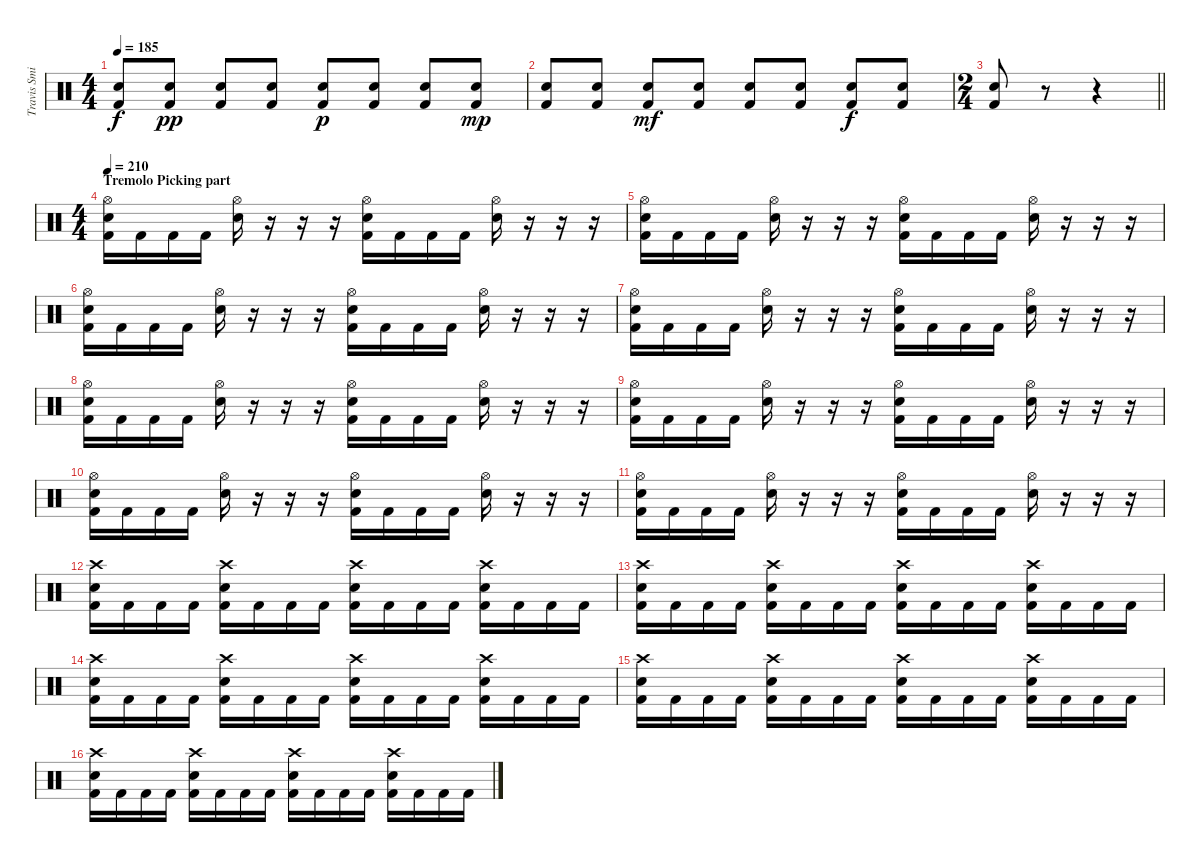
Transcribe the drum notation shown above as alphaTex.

\track ("Travis Smith" "Travis Smi") {instrument percussion}
\staff {score}
\articulation defaults
\ts (4 4)
\tempo 185
\clef neutral
\ks c
("Electric Snare (hit)" "Kick (hit) 2").8{dy f} ("Electric Snare (hit)" "Kick (hit) 2").8{dy pp} ("Electric Snare (hit)" "Kick (hit) 2").8 ("Electric Snare (hit)" "Kick (hit) 2").8 ("Electric Snare (hit)" "Kick (hit) 2").8{dy p} ("Electric Snare (hit)" "Kick (hit) 2").8 ("Electric Snare (hit)" "Kick (hit) 2").8 ("Electric Snare (hit)" "Kick (hit) 2").8{dy mp} |
("Electric Snare (hit)" "Kick (hit) 2").8 ("Electric Snare (hit)" "Kick (hit) 2").8 ("Electric Snare (hit)" "Kick (hit) 2").8{dy mf} ("Electric Snare (hit)" "Kick (hit) 2").8 ("Electric Snare (hit)" "Kick (hit) 2").8 ("Electric Snare (hit)" "Kick (hit) 2").8 ("Electric Snare (hit)" "Kick (hit) 2").8{dy f} ("Electric Snare (hit)" "Kick (hit) 2").8 |
\ts (2 4)
\barLineRight lightlight
("Electric Snare (hit)" "Kick (hit) 2").8 r.8 r.4 |
\ts (4 4)
\section ("" "Tremolo Picking part")
\tempo 210
("Hi-Hat (open)" "Electric Snare (hit)" "Kick (hit) 2").16 "Kick (hit) 2".16 "Kick (hit) 2".16 "Kick (hit) 2".16 ("Hi-Hat (open)" "Electric Snare (hit)").16 r.16 r.16 r.16 ("Hi-Hat (open)" "Electric Snare (hit)" "Kick (hit) 2").16 "Kick (hit) 2".16 "Kick (hit) 2".16 "Kick (hit) 2".16 ("Hi-Hat (open)" "Electric Snare (hit)").16 r.16 r.16 r.16 |
("Hi-Hat (open)" "Electric Snare (hit)" "Kick (hit) 2").16 "Kick (hit) 2".16 "Kick (hit) 2".16 "Kick (hit) 2".16 ("Hi-Hat (open)" "Electric Snare (hit)").16 r.16 r.16 r.16 ("Hi-Hat (open)" "Electric Snare (hit)" "Kick (hit) 2").16 "Kick (hit) 2".16 "Kick (hit) 2".16 "Kick (hit) 2".16 ("Hi-Hat (open)" "Electric Snare (hit)").16 r.16 r.16 r.16 |
("Hi-Hat (open)" "Electric Snare (hit)" "Kick (hit) 2").16 "Kick (hit) 2".16 "Kick (hit) 2".16 "Kick (hit) 2".16 ("Hi-Hat (open)" "Electric Snare (hit)").16 r.16 r.16 r.16 ("Hi-Hat (open)" "Electric Snare (hit)" "Kick (hit) 2").16 "Kick (hit) 2".16 "Kick (hit) 2".16 "Kick (hit) 2".16 ("Hi-Hat (open)" "Electric Snare (hit)").16 r.16 r.16 r.16 |
("Hi-Hat (open)" "Electric Snare (hit)" "Kick (hit) 2").16 "Kick (hit) 2".16 "Kick (hit) 2".16 "Kick (hit) 2".16 ("Hi-Hat (open)" "Electric Snare (hit)").16 r.16 r.16 r.16 ("Hi-Hat (open)" "Electric Snare (hit)" "Kick (hit) 2").16 "Kick (hit) 2".16 "Kick (hit) 2".16 "Kick (hit) 2".16 ("Hi-Hat (open)" "Electric Snare (hit)").16 r.16 r.16 r.16 |
("Hi-Hat (open)" "Electric Snare (hit)" "Kick (hit) 2").16 "Kick (hit) 2".16 "Kick (hit) 2".16 "Kick (hit) 2".16 ("Hi-Hat (open)" "Electric Snare (hit)").16 r.16 r.16 r.16 ("Hi-Hat (open)" "Electric Snare (hit)" "Kick (hit) 2").16 "Kick (hit) 2".16 "Kick (hit) 2".16 "Kick (hit) 2".16 ("Hi-Hat (open)" "Electric Snare (hit)").16 r.16 r.16 r.16 |
("Hi-Hat (open)" "Electric Snare (hit)" "Kick (hit) 2").16 "Kick (hit) 2".16 "Kick (hit) 2".16 "Kick (hit) 2".16 ("Hi-Hat (open)" "Electric Snare (hit)").16 r.16 r.16 r.16 ("Hi-Hat (open)" "Electric Snare (hit)" "Kick (hit) 2").16 "Kick (hit) 2".16 "Kick (hit) 2".16 "Kick (hit) 2".16 ("Hi-Hat (open)" "Electric Snare (hit)").16 r.16 r.16 r.16 |
("Hi-Hat (open)" "Electric Snare (hit)" "Kick (hit) 2").16 "Kick (hit) 2".16 "Kick (hit) 2".16 "Kick (hit) 2".16 ("Hi-Hat (open)" "Electric Snare (hit)").16 r.16 r.16 r.16 ("Hi-Hat (open)" "Electric Snare (hit)" "Kick (hit) 2").16 "Kick (hit) 2".16 "Kick (hit) 2".16 "Kick (hit) 2".16 ("Hi-Hat (open)" "Electric Snare (hit)").16 r.16 r.16 r.16 |
("Hi-Hat (open)" "Electric Snare (hit)" "Kick (hit) 2").16 "Kick (hit) 2".16 "Kick (hit) 2".16 "Kick (hit) 2".16 ("Hi-Hat (open)" "Electric Snare (hit)").16 r.16 r.16 r.16 ("Hi-Hat (open)" "Electric Snare (hit)" "Kick (hit) 2").16 "Kick (hit) 2".16 "Kick (hit) 2".16 "Kick (hit) 2".16 ("Hi-Hat (open)" "Electric Snare (hit)").16 r.16 r.16 r.16 |
("Crash high (hit)" "Electric Snare (hit)" "Kick (hit) 2").16 "Kick (hit) 2".16 "Kick (hit) 2".16 "Kick (hit) 2".16 ("Crash high (hit)" "Electric Snare (hit)" "Kick (hit) 2").16 "Kick (hit) 2".16 "Kick (hit) 2".16 "Kick (hit) 2".16 ("Crash high (hit)" "Electric Snare (hit)" "Kick (hit) 2").16 "Kick (hit) 2".16 "Kick (hit) 2".16 "Kick (hit) 2".16 ("Crash high (hit)" "Electric Snare (hit)" "Kick (hit) 2").16 "Kick (hit) 2".16 "Kick (hit) 2".16 "Kick (hit) 2".16 |
("Crash high (hit)" "Electric Snare (hit)" "Kick (hit) 2").16 "Kick (hit) 2".16 "Kick (hit) 2".16 "Kick (hit) 2".16 ("Crash high (hit)" "Electric Snare (hit)" "Kick (hit) 2").16 "Kick (hit) 2".16 "Kick (hit) 2".16 "Kick (hit) 2".16 ("Crash high (hit)" "Electric Snare (hit)" "Kick (hit) 2").16 "Kick (hit) 2".16 "Kick (hit) 2".16 "Kick (hit) 2".16 ("Crash high (hit)" "Electric Snare (hit)" "Kick (hit) 2").16 "Kick (hit) 2".16 "Kick (hit) 2".16 "Kick (hit) 2".16 |
("Crash high (hit)" "Electric Snare (hit)" "Kick (hit) 2").16 "Kick (hit) 2".16 "Kick (hit) 2".16 "Kick (hit) 2".16 ("Crash high (hit)" "Electric Snare (hit)" "Kick (hit) 2").16 "Kick (hit) 2".16 "Kick (hit) 2".16 "Kick (hit) 2".16 ("Crash high (hit)" "Electric Snare (hit)" "Kick (hit) 2").16 "Kick (hit) 2".16 "Kick (hit) 2".16 "Kick (hit) 2".16 ("Crash high (hit)" "Electric Snare (hit)" "Kick (hit) 2").16 "Kick (hit) 2".16 "Kick (hit) 2".16 "Kick (hit) 2".16 |
("Crash high (hit)" "Electric Snare (hit)" "Kick (hit) 2").16 "Kick (hit) 2".16 "Kick (hit) 2".16 "Kick (hit) 2".16 ("Crash high (hit)" "Electric Snare (hit)" "Kick (hit) 2").16 "Kick (hit) 2".16 "Kick (hit) 2".16 "Kick (hit) 2".16 ("Crash high (hit)" "Electric Snare (hit)" "Kick (hit) 2").16 "Kick (hit) 2".16 "Kick (hit) 2".16 "Kick (hit) 2".16 ("Crash high (hit)" "Electric Snare (hit)" "Kick (hit) 2").16 "Kick (hit) 2".16 "Kick (hit) 2".16 "Kick (hit) 2".16 |
("Crash high (hit)" "Electric Snare (hit)" "Kick (hit) 2").16 "Kick (hit) 2".16 "Kick (hit) 2".16 "Kick (hit) 2".16 ("Crash high (hit)" "Electric Snare (hit)" "Kick (hit) 2").16 "Kick (hit) 2".16 "Kick (hit) 2".16 "Kick (hit) 2".16 ("Crash high (hit)" "Electric Snare (hit)" "Kick (hit) 2").16 "Kick (hit) 2".16 "Kick (hit) 2".16 "Kick (hit) 2".16 ("Crash high (hit)" "Electric Snare (hit)" "Kick (hit) 2").16 "Kick (hit) 2".16 "Kick (hit) 2".16 "Kick (hit) 2".16
